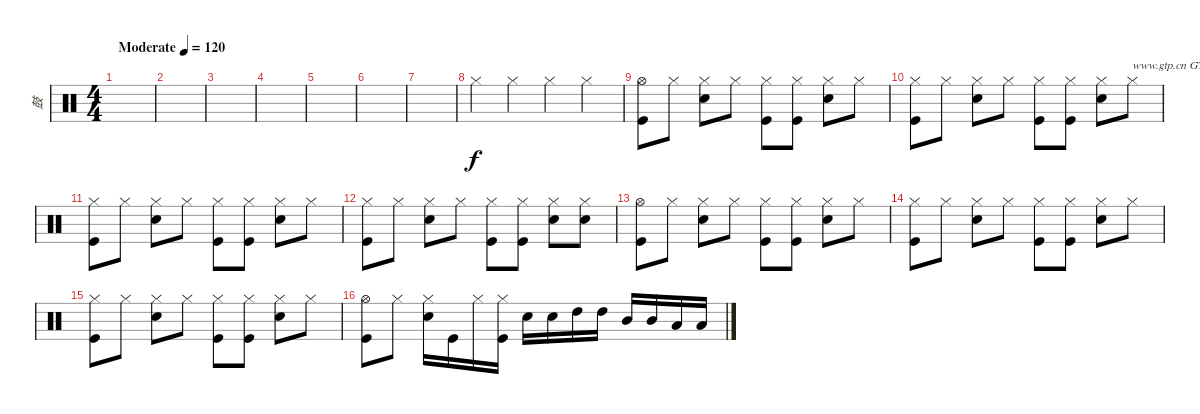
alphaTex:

\track ("鼓" "鼓") {instrument percussion}
\staff {score}
\articulation defaults
\ts (4 4)
\tempo (120 "Moderate")
\clef neutral
\ks c
|
|
|
|
|
|
|
"Hi-Hat (closed)".4 "Hi-Hat (closed)".4 "Hi-Hat (closed)".4 "Hi-Hat (closed)".4 |
("Hi-Hat (open)" "Kick (hit)").8 "Hi-Hat (closed)".8 ("Hi-Hat (closed)" "Snare (hit) 2").8 "Hi-Hat (closed)".8 ("Hi-Hat (closed)" "Kick (hit)").8 ("Hi-Hat (closed)" "Kick (hit)").8 ("Hi-Hat (closed)" "Snare (hit) 2").8 "Hi-Hat (closed)".8 |
("Hi-Hat (closed)" "Kick (hit)").8 "Hi-Hat (closed)".8 ("Hi-Hat (closed)" "Snare (hit) 2").8 "Hi-Hat (closed)".8 ("Hi-Hat (closed)" "Kick (hit)").8 ("Hi-Hat (closed)" "Kick (hit)").8 ("Hi-Hat (closed)" "Snare (hit) 2").8 "Hi-Hat (closed)".8{txt "www.gtp.cn GTP中文娱乐网为您提供优秀的谱子"} |
("Hi-Hat (closed)" "Kick (hit)").8 "Hi-Hat (closed)".8 ("Hi-Hat (closed)" "Snare (hit) 2").8 "Hi-Hat (closed)".8 ("Hi-Hat (closed)" "Kick (hit)").8 ("Hi-Hat (closed)" "Kick (hit)").8 ("Hi-Hat (closed)" "Snare (hit) 2").8 "Hi-Hat (closed)".8 |
("Hi-Hat (closed)" "Kick (hit)").8 "Hi-Hat (closed)".8 ("Hi-Hat (closed)" "Snare (hit) 2").8 "Hi-Hat (closed)".8 ("Hi-Hat (closed)" "Kick (hit)").8 ("Hi-Hat (closed)" "Kick (hit)").8 ("Hi-Hat (closed)" "Snare (hit) 2").8 ("Hi-Hat (closed)" "Snare (hit) 2").8 |
("Hi-Hat (open)" "Kick (hit)").8 "Hi-Hat (closed)".8 ("Hi-Hat (closed)" "Snare (hit) 2").8 "Hi-Hat (closed)".8 ("Hi-Hat (closed)" "Kick (hit)").8 ("Hi-Hat (closed)" "Kick (hit)").8 ("Hi-Hat (closed)" "Snare (hit) 2").8 "Hi-Hat (closed)".8 |
("Hi-Hat (closed)" "Kick (hit)").8 "Hi-Hat (closed)".8 ("Hi-Hat (closed)" "Snare (hit) 2").8 "Hi-Hat (closed)".8 ("Hi-Hat (closed)" "Kick (hit)").8 ("Hi-Hat (closed)" "Kick (hit)").8 ("Hi-Hat (closed)" "Snare (hit) 2").8 "Hi-Hat (closed)".8 |
("Hi-Hat (closed)" "Kick (hit)").8 "Hi-Hat (closed)".8 ("Hi-Hat (closed)" "Snare (hit) 2").8 "Hi-Hat (closed)".8 ("Hi-Hat (closed)" "Kick (hit)").8 ("Hi-Hat (closed)" "Kick (hit)").8 ("Hi-Hat (closed)" "Snare (hit) 2").8 "Hi-Hat (closed)".8 |
("Hi-Hat (open)" "Kick (hit)").8 "Hi-Hat (closed)".8 ("Hi-Hat (closed)" "Snare (hit) 2").16 "Kick (hit)".16 "Hi-Hat (closed)".16 ("Hi-Hat (closed)" "Kick (hit)").16 "Snare (hit) 2".16 "Snare (hit) 2".16 "High Tom (hit)".16 "High Tom (hit)".16 "Mid Tom (hit)".16 "Mid Tom (hit)".16 "Low Tom (hit)".16 "Low Tom (hit)".16
